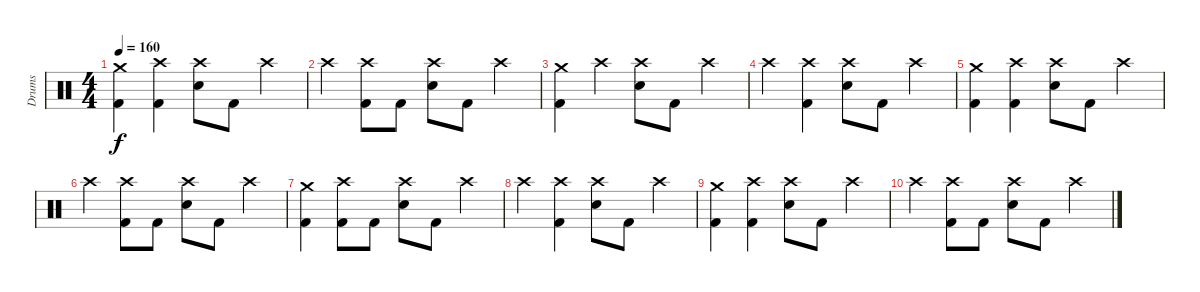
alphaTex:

\track ("Drums" "Drums") {instrument percussion}
\staff
\articulation defaults
\ts (4 4)
\tempo 160
\clef neutral
\ks c
("Crash medium (hit)" "Kick (hit) 2").4{dy f} ("Crash high (hit)" "Kick (hit) 2").4 ("Crash high (hit)" "Electric Snare (hit)").8 "Kick (hit) 2".8 "Crash high (hit)".4 |
"Crash high (hit)".4 ("Crash high (hit)" "Kick (hit) 2").8 "Kick (hit) 2".8 ("Crash high (hit)" "Electric Snare (hit)").8 "Kick (hit) 2".8 "Crash high (hit)".4 |
("Crash medium (hit)" "Kick (hit) 2").4 "Crash high (hit)".4 ("Crash high (hit)" "Electric Snare (hit)").8 "Kick (hit) 2".8 "Crash high (hit)".4 |
"Crash high (hit)".4 ("Crash high (hit)" "Kick (hit) 2").4 ("Crash high (hit)" "Electric Snare (hit)").8 "Kick (hit) 2".8 "Crash high (hit)".4 |
("Crash medium (hit)" "Kick (hit) 2").4 ("Crash high (hit)" "Kick (hit) 2").4 ("Crash high (hit)" "Electric Snare (hit)").8 "Kick (hit) 2".8 "Crash high (hit)".4 |
"Crash high (hit)".4 ("Crash high (hit)" "Kick (hit) 2").8 "Kick (hit) 2".8 ("Crash high (hit)" "Electric Snare (hit)").8 "Kick (hit) 2".8 "Crash high (hit)".4 |
("Crash medium (hit)" "Kick (hit) 2").4 ("Crash high (hit)" "Kick (hit) 2").8 "Kick (hit) 2".8 ("Crash high (hit)" "Electric Snare (hit)").8 "Kick (hit) 2".8 "Crash high (hit)".4 |
"Crash high (hit)".4 ("Crash high (hit)" "Kick (hit) 2").4 ("Crash high (hit)" "Electric Snare (hit)").8 "Kick (hit) 2".8 "Crash high (hit)".4 |
("Crash medium (hit)" "Kick (hit) 2").4 ("Crash high (hit)" "Kick (hit) 2").4 ("Crash high (hit)" "Electric Snare (hit)").8 "Kick (hit) 2".8 "Crash high (hit)".4 |
"Crash high (hit)".4 ("Crash high (hit)" "Kick (hit) 2").8 "Kick (hit) 2".8 ("Crash high (hit)" "Electric Snare (hit)").8 "Kick (hit) 2".8 "Crash high (hit)".4
